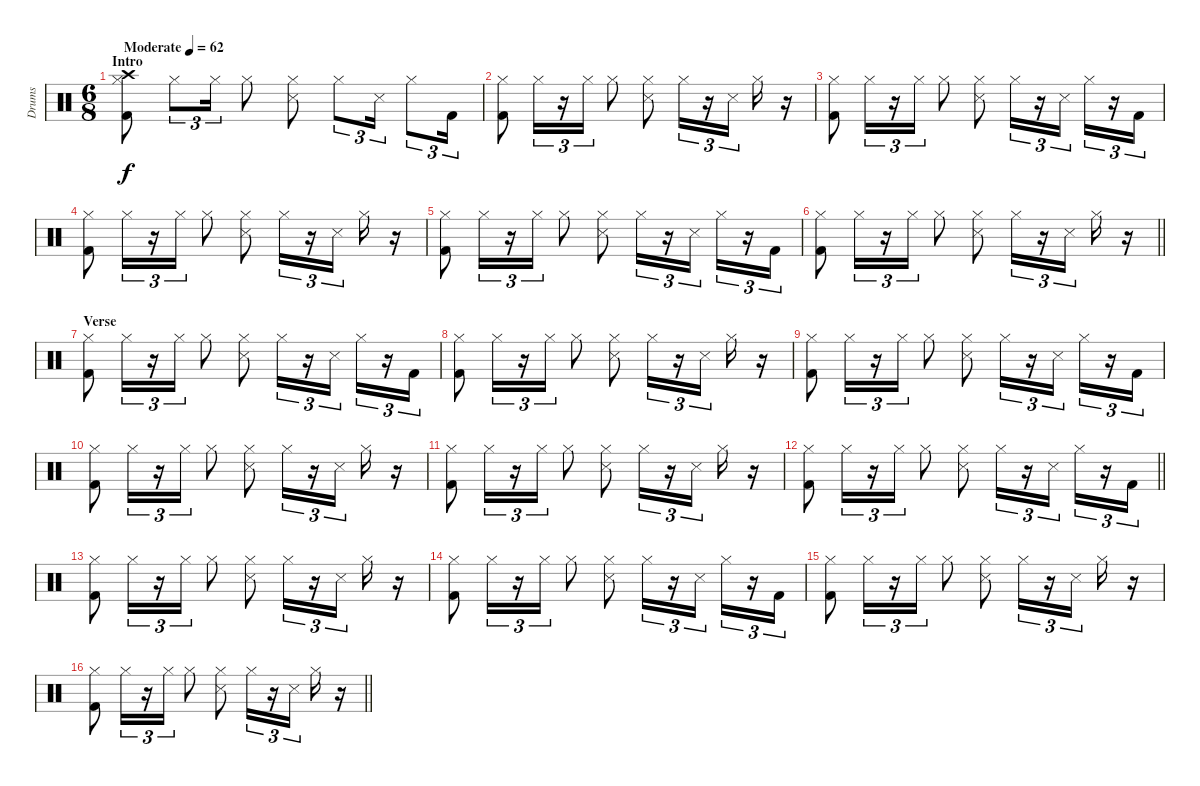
\track ("Drums" "Drums") {instrument percussion}
\staff {score}
\articulation defaults
\ts (6 8)
\section ("" "Intro")
\tempo (62 "Moderate")
\clef neutral
\ks c
("Hi-Hat (closed)" "Crash high (hit)" "Kick (hit) 2").8{dy f} "Hi-Hat (closed)".8{tu (3 2)} "Hi-Hat (closed)".16{tu (3 2)} "Hi-Hat (closed)".8 ("Hi-Hat (closed)" "Snare (side stick) 3").8 "Hi-Hat (closed)".8{tu (3 2)} "Snare (side stick) 3".16{tu (3 2)} "Hi-Hat (closed)".8{tu (3 2)} "Kick (hit) 2".16{tu (3 2)} |
("Hi-Hat (closed)" "Kick (hit) 2").8 "Hi-Hat (closed)".16{tu (3 2)} r.16{tu (3 2)} "Hi-Hat (closed)".16{tu (3 2)} "Hi-Hat (closed)".8 ("Hi-Hat (closed)" "Snare (side stick) 3").8 "Hi-Hat (closed)".16{tu (3 2)} r.16{tu (3 2)} "Snare (side stick) 3".16{tu (3 2)} "Hi-Hat (closed)".16 r.16 |
("Hi-Hat (closed)" "Kick (hit) 2").8 "Hi-Hat (closed)".16{tu (3 2)} r.16{tu (3 2)} "Hi-Hat (closed)".16{tu (3 2)} "Hi-Hat (closed)".8 ("Hi-Hat (closed)" "Snare (side stick) 3").8 "Hi-Hat (closed)".16{tu (3 2)} r.16{tu (3 2)} "Snare (side stick) 3".16{tu (3 2)} "Hi-Hat (closed)".16{tu (3 2)} r.16{tu (3 2)} "Kick (hit) 2".16{tu (3 2)} |
("Hi-Hat (closed)" "Kick (hit) 2").8 "Hi-Hat (closed)".16{tu (3 2)} r.16{tu (3 2)} "Hi-Hat (closed)".16{tu (3 2)} "Hi-Hat (closed)".8 ("Hi-Hat (closed)" "Snare (side stick) 3").8 "Hi-Hat (closed)".16{tu (3 2)} r.16{tu (3 2)} "Snare (side stick) 3".16{tu (3 2)} "Hi-Hat (closed)".16 r.16 |
("Hi-Hat (closed)" "Kick (hit) 2").8 "Hi-Hat (closed)".16{tu (3 2)} r.16{tu (3 2)} "Hi-Hat (closed)".16{tu (3 2)} "Hi-Hat (closed)".8 ("Hi-Hat (closed)" "Snare (side stick) 3").8 "Hi-Hat (closed)".16{tu (3 2)} r.16{tu (3 2)} "Snare (side stick) 3".16{tu (3 2)} "Hi-Hat (closed)".16{tu (3 2)} r.16{tu (3 2)} "Kick (hit) 2".16{tu (3 2)} |
\barLineRight lightlight
("Hi-Hat (closed)" "Kick (hit) 2").8 "Hi-Hat (closed)".16{tu (3 2)} r.16{tu (3 2)} "Hi-Hat (closed)".16{tu (3 2)} "Hi-Hat (closed)".8 ("Hi-Hat (closed)" "Snare (side stick) 3").8 "Hi-Hat (closed)".16{tu (3 2)} r.16{tu (3 2)} "Snare (side stick) 3".16{tu (3 2)} "Hi-Hat (closed)".16 r.16 |
\section ("" "Verse")
("Hi-Hat (closed)" "Kick (hit) 2").8 "Hi-Hat (closed)".16{tu (3 2)} r.16{tu (3 2)} "Hi-Hat (closed)".16{tu (3 2)} "Hi-Hat (closed)".8 ("Hi-Hat (closed)" "Snare (side stick) 3").8 "Hi-Hat (closed)".16{tu (3 2)} r.16{tu (3 2)} "Snare (side stick) 3".16{tu (3 2)} "Hi-Hat (closed)".16{tu (3 2)} r.16{tu (3 2)} "Kick (hit) 2".16{tu (3 2)} |
("Hi-Hat (closed)" "Kick (hit) 2").8 "Hi-Hat (closed)".16{tu (3 2)} r.16{tu (3 2)} "Hi-Hat (closed)".16{tu (3 2)} "Hi-Hat (closed)".8 ("Hi-Hat (closed)" "Snare (side stick) 3").8 "Hi-Hat (closed)".16{tu (3 2)} r.16{tu (3 2)} "Snare (side stick) 3".16{tu (3 2)} "Hi-Hat (closed)".16 r.16 |
("Hi-Hat (closed)" "Kick (hit) 2").8 "Hi-Hat (closed)".16{tu (3 2)} r.16{tu (3 2)} "Hi-Hat (closed)".16{tu (3 2)} "Hi-Hat (closed)".8 ("Hi-Hat (closed)" "Snare (side stick) 3").8 "Hi-Hat (closed)".16{tu (3 2)} r.16{tu (3 2)} "Snare (side stick) 3".16{tu (3 2)} "Hi-Hat (closed)".16{tu (3 2)} r.16{tu (3 2)} "Kick (hit) 2".16{tu (3 2)} |
("Hi-Hat (closed)" "Kick (hit) 2").8 "Hi-Hat (closed)".16{tu (3 2)} r.16{tu (3 2)} "Hi-Hat (closed)".16{tu (3 2)} "Hi-Hat (closed)".8 ("Hi-Hat (closed)" "Snare (side stick) 3").8 "Hi-Hat (closed)".16{tu (3 2)} r.16{tu (3 2)} "Snare (side stick) 3".16{tu (3 2)} "Hi-Hat (closed)".16 r.16 |
("Hi-Hat (closed)" "Kick (hit) 2").8 "Hi-Hat (closed)".16{tu (3 2)} r.16{tu (3 2)} "Hi-Hat (closed)".16{tu (3 2)} "Hi-Hat (closed)".8 ("Hi-Hat (closed)" "Snare (side stick) 3").8 "Hi-Hat (closed)".16{tu (3 2)} r.16{tu (3 2)} "Snare (side stick) 3".16{tu (3 2)} "Hi-Hat (closed)".16 r.16 |
\barLineRight lightlight
("Hi-Hat (closed)" "Kick (hit) 2").8 "Hi-Hat (closed)".16{tu (3 2)} r.16{tu (3 2)} "Hi-Hat (closed)".16{tu (3 2)} "Hi-Hat (closed)".8 ("Hi-Hat (closed)" "Snare (side stick) 3").8 "Hi-Hat (closed)".16{tu (3 2)} r.16{tu (3 2)} "Snare (side stick) 3".16{tu (3 2)} "Hi-Hat (closed)".16{tu (3 2)} r.16{tu (3 2)} "Kick (hit) 2".16{tu (3 2)} |
("Hi-Hat (closed)" "Kick (hit) 2").8 "Hi-Hat (closed)".16{tu (3 2)} r.16{tu (3 2)} "Hi-Hat (closed)".16{tu (3 2)} "Hi-Hat (closed)".8 ("Hi-Hat (closed)" "Snare (side stick) 3").8 "Hi-Hat (closed)".16{tu (3 2)} r.16{tu (3 2)} "Snare (side stick) 3".16{tu (3 2)} "Hi-Hat (closed)".16 r.16 |
("Hi-Hat (closed)" "Kick (hit) 2").8 "Hi-Hat (closed)".16{tu (3 2)} r.16{tu (3 2)} "Hi-Hat (closed)".16{tu (3 2)} "Hi-Hat (closed)".8 ("Hi-Hat (closed)" "Snare (side stick) 3").8 "Hi-Hat (closed)".16{tu (3 2)} r.16{tu (3 2)} "Snare (side stick) 3".16{tu (3 2)} "Hi-Hat (closed)".16{tu (3 2)} r.16{tu (3 2)} "Kick (hit) 2".16{tu (3 2)} |
("Hi-Hat (closed)" "Kick (hit) 2").8 "Hi-Hat (closed)".16{tu (3 2)} r.16{tu (3 2)} "Hi-Hat (closed)".16{tu (3 2)} "Hi-Hat (closed)".8 ("Hi-Hat (closed)" "Snare (side stick) 3").8 "Hi-Hat (closed)".16{tu (3 2)} r.16{tu (3 2)} "Snare (side stick) 3".16{tu (3 2)} "Hi-Hat (closed)".16 r.16 |
\barLineRight lightlight
("Hi-Hat (closed)" "Kick (hit) 2").8 "Hi-Hat (closed)".16{tu (3 2)} r.16{tu (3 2)} "Hi-Hat (closed)".16{tu (3 2)} "Hi-Hat (closed)".8 ("Hi-Hat (closed)" "Snare (side stick) 3").8 "Hi-Hat (closed)".16{tu (3 2)} r.16{tu (3 2)} "Snare (side stick) 3".16{tu (3 2)} "Hi-Hat (closed)".16 r.16
